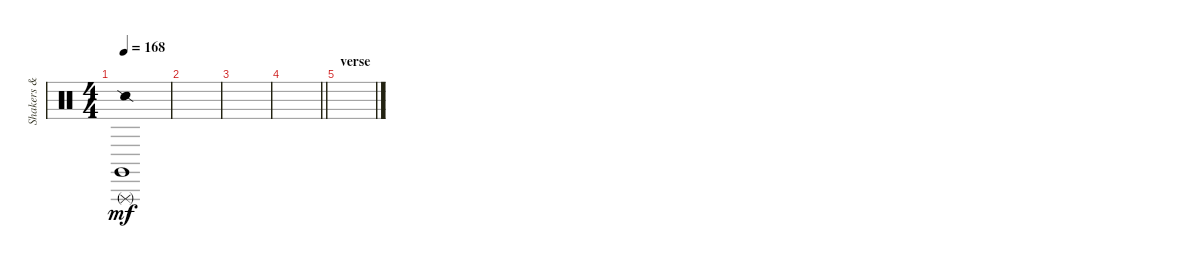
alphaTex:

\track ("Shakers & Effects" "Shakers & ") {instrument percussion}
\staff {score}
\articulation defaults
\ts (4 4)
\tempo 168
\clef neutral
\ks c
("Claves (hit)" "Triangle (rnute)" "Snare (side stick) 2").1{dy mf} |
|
|
\barLineRight lightlight
|
\section ("" "verse")
